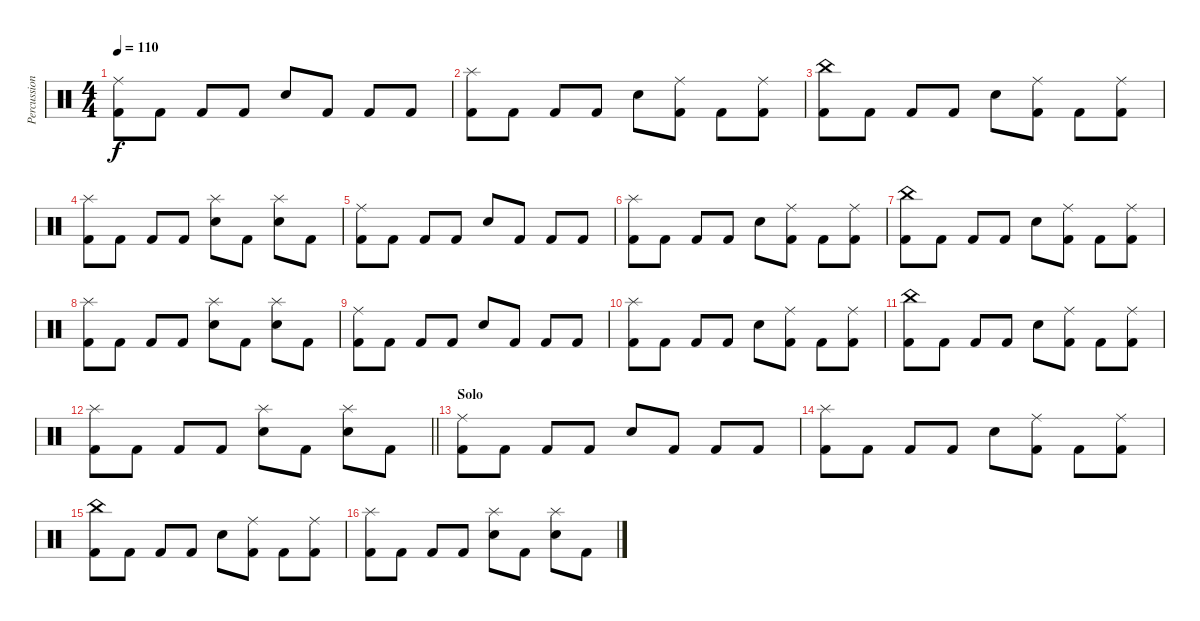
\track ("Percussion" "Percussion") {instrument percussion}
\staff {score}
\articulation defaults
\ts (4 4)
\tempo 110
\clef neutral
\ks c
("Ride (middle)" "Kick (hit) 2").8{dy f} "Kick (hit) 2".8 "Kick (hit) 2".8 "Kick (hit) 2".8 "Electric Snare (hit)".8 "Kick (hit) 2".8 "Kick (hit) 2".8 "Kick (hit) 2".8 |
("Splash (hit)" "Kick (hit) 2").8 "Kick (hit) 2".8 "Kick (hit) 2".8 "Kick (hit) 2".8 "Electric Snare (hit)".8 ("Ride (middle)" "Kick (hit) 2").8 "Kick (hit) 2".8 ("Ride (middle)" "Kick (hit) 2").8 |
("China (hit)" "Kick (hit) 2").8 "Kick (hit) 2".8 "Kick (hit) 2".8 "Kick (hit) 2".8 "Electric Snare (hit)".8 ("Ride (middle)" "Kick (hit) 2").8 "Kick (hit) 2".8 ("Ride (middle)" "Kick (hit) 2").8 |
("Splash (hit)" "Kick (hit) 2").8 "Kick (hit) 2".8 "Kick (hit) 2".8 "Kick (hit) 2".8 ("Splash (hit)" "Electric Snare (hit)").8 "Kick (hit) 2".8 ("Splash (hit)" "Electric Snare (hit)").8 "Kick (hit) 2".8 |
("Ride (middle)" "Kick (hit) 2").8 "Kick (hit) 2".8 "Kick (hit) 2".8 "Kick (hit) 2".8 "Electric Snare (hit)".8 "Kick (hit) 2".8 "Kick (hit) 2".8 "Kick (hit) 2".8 |
("Splash (hit)" "Kick (hit) 2").8 "Kick (hit) 2".8 "Kick (hit) 2".8 "Kick (hit) 2".8 "Electric Snare (hit)".8 ("Ride (middle)" "Kick (hit) 2").8 "Kick (hit) 2".8 ("Ride (middle)" "Kick (hit) 2").8 |
("China (hit)" "Kick (hit) 2").8 "Kick (hit) 2".8 "Kick (hit) 2".8 "Kick (hit) 2".8 "Electric Snare (hit)".8 ("Ride (middle)" "Kick (hit) 2").8 "Kick (hit) 2".8 ("Ride (middle)" "Kick (hit) 2").8 |
("Splash (hit)" "Kick (hit) 2").8 "Kick (hit) 2".8 "Kick (hit) 2".8 "Kick (hit) 2".8 ("Splash (hit)" "Electric Snare (hit)").8 "Kick (hit) 2".8 ("Splash (hit)" "Electric Snare (hit)").8 "Kick (hit) 2".8 |
("Ride (middle)" "Kick (hit) 2").8 "Kick (hit) 2".8 "Kick (hit) 2".8 "Kick (hit) 2".8 "Electric Snare (hit)".8 "Kick (hit) 2".8 "Kick (hit) 2".8 "Kick (hit) 2".8 |
("Splash (hit)" "Kick (hit) 2").8 "Kick (hit) 2".8 "Kick (hit) 2".8 "Kick (hit) 2".8 "Electric Snare (hit)".8 ("Ride (middle)" "Kick (hit) 2").8 "Kick (hit) 2".8 ("Ride (middle)" "Kick (hit) 2").8 |
("China (hit)" "Kick (hit) 2").8 "Kick (hit) 2".8 "Kick (hit) 2".8 "Kick (hit) 2".8 "Electric Snare (hit)".8 ("Ride (middle)" "Kick (hit) 2").8 "Kick (hit) 2".8 ("Ride (middle)" "Kick (hit) 2").8 |
\barLineRight lightlight
("Splash (hit)" "Kick (hit) 2").8 "Kick (hit) 2".8 "Kick (hit) 2".8 "Kick (hit) 2".8 ("Splash (hit)" "Electric Snare (hit)").8 "Kick (hit) 2".8 ("Splash (hit)" "Electric Snare (hit)").8 "Kick (hit) 2".8 |
\section ("" "Solo")
("Ride (middle)" "Kick (hit) 2").8 "Kick (hit) 2".8 "Kick (hit) 2".8 "Kick (hit) 2".8 "Electric Snare (hit)".8 "Kick (hit) 2".8 "Kick (hit) 2".8 "Kick (hit) 2".8 |
("Splash (hit)" "Kick (hit) 2").8 "Kick (hit) 2".8 "Kick (hit) 2".8 "Kick (hit) 2".8 "Electric Snare (hit)".8 ("Ride (middle)" "Kick (hit) 2").8 "Kick (hit) 2".8 ("Ride (middle)" "Kick (hit) 2").8 |
("China (hit)" "Kick (hit) 2").8 "Kick (hit) 2".8 "Kick (hit) 2".8 "Kick (hit) 2".8 "Electric Snare (hit)".8 ("Ride (middle)" "Kick (hit) 2").8 "Kick (hit) 2".8 ("Ride (middle)" "Kick (hit) 2").8 |
("Splash (hit)" "Kick (hit) 2").8 "Kick (hit) 2".8 "Kick (hit) 2".8 "Kick (hit) 2".8 ("Splash (hit)" "Electric Snare (hit)").8 "Kick (hit) 2".8 ("Splash (hit)" "Electric Snare (hit)").8 "Kick (hit) 2".8
